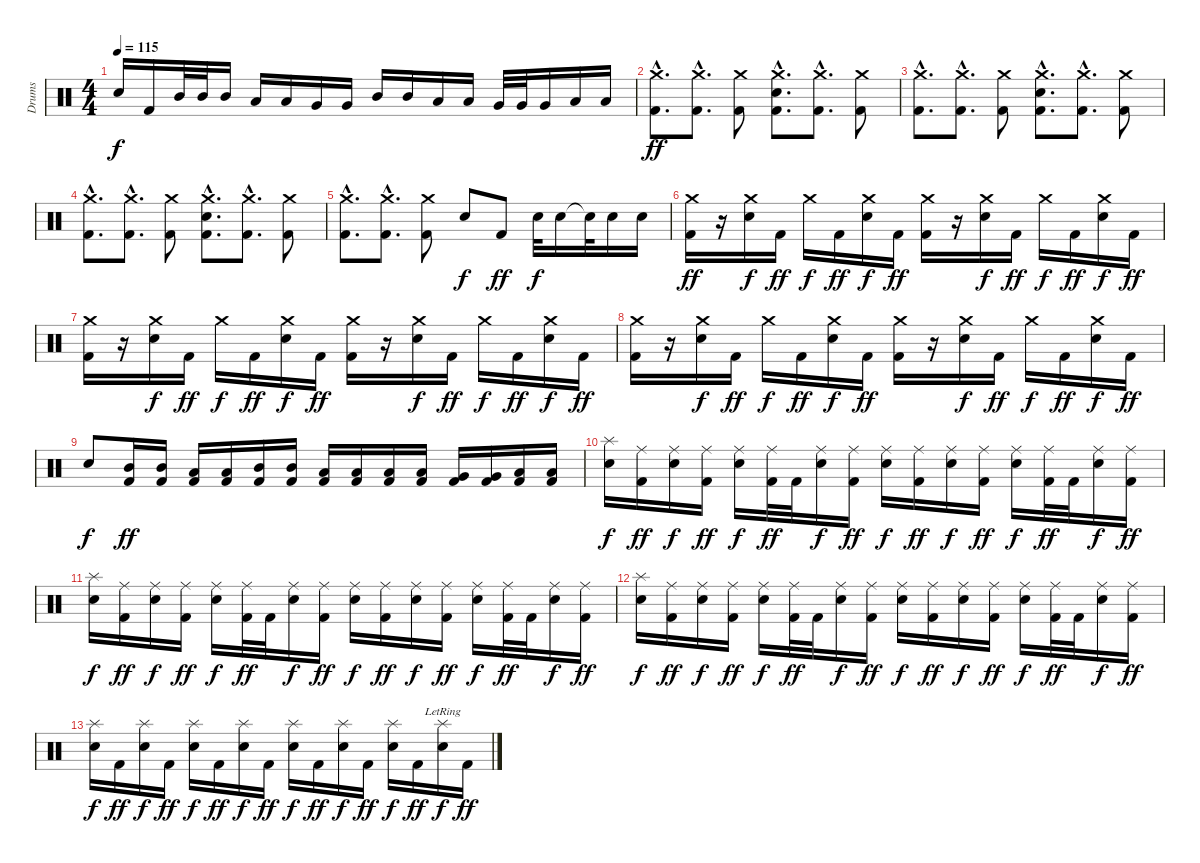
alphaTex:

\track ("Drums" "Drums") {instrument percussion}
\staff {score}
\articulation defaults
\ts (4 4)
\tempo 115
\clef neutral
\ks c "Electric Snare (hit)".16{dy f} "Kick (hit) 2".16 "Mid Tom (hit)".32 "Mid Tom (hit)".32 "Mid Tom (hit)".16 "Low Tom (hit)".16 "Low Tom (hit)".16 "Very Low Tom (hit)".16 "Very Low Tom (hit)".16 "Mid Tom (hit)".16 "Mid Tom (hit)".16 "Low Tom (hit)".16 "Low Tom (hit)".16 "Very Low Tom (hit)".32 "Very Low Tom (hit)".32 "Very Low Tom (hit)".16 "Low Floor Tom (hit)".16 "Low Floor Tom (hit)".16
|
("Crash medium (hit)"{hac} "Kick (hit) 2"{hac}).8{d dy ff} ("Crash medium (hit)"{hac} "Kick (hit) 2"{hac}).8{d} ("Crash medium (hit)" "Kick (hit) 2").8 ("Crash medium (hit)"{hac} "Electric Snare (hit)"{hac} "Kick (hit) 2"{hac}).8{d} ("Crash medium (hit)"{hac} "Kick (hit) 2"{hac}).8{d} ("Crash medium (hit)" "Kick (hit) 2").8 |
("Crash medium (hit)"{hac} "Kick (hit) 2"{hac}).8{d} ("Crash medium (hit)"{hac} "Kick (hit) 2"{hac}).8{d} ("Crash medium (hit)" "Kick (hit) 2").8 ("Crash medium (hit)"{hac} "Electric Snare (hit)"{hac} "Kick (hit) 2"{hac}).8{d} ("Crash medium (hit)"{hac} "Kick (hit) 2"{hac}).8{d} ("Crash medium (hit)" "Kick (hit) 2").8 |
("Crash medium (hit)"{hac} "Kick (hit) 2"{hac}).8{d} ("Crash medium (hit)"{hac} "Kick (hit) 2"{hac}).8{d} ("Crash medium (hit)" "Kick (hit) 2").8 ("Crash medium (hit)"{hac} "Electric Snare (hit)"{hac} "Kick (hit) 2"{hac}).8{d} ("Crash medium (hit)"{hac} "Kick (hit) 2"{hac}).8{d} ("Crash medium (hit)" "Kick (hit) 2").8 |
("Crash medium (hit)"{hac} "Kick (hit) 2"{hac}).8{d} ("Crash medium (hit)"{hac} "Kick (hit) 2"{hac}).8{d} ("Crash medium (hit)" "Kick (hit) 2").8 "Electric Snare (hit)".8{dy f} "Kick (hit) 2".8{dy ff} "Electric Snare (hit)".32{dy f} "Electric Snare (hit)".16 "Electric Snare (hit)"{t}.32 "Electric Snare (hit)".16 "Electric Snare (hit)".16 |
("Crash medium (hit)" "Kick (hit) 2").16{dy ff} r.16 ("Crash medium (hit)" "Electric Snare (hit)").16{dy f} "Kick (hit) 2".16{dy ff} "Crash medium (hit)".16{dy f} "Kick (hit) 2".16{dy ff} ("Crash medium (hit)" "Electric Snare (hit)").16{dy f} "Kick (hit) 2".16{dy ff} ("Crash medium (hit)" "Kick (hit) 2").16 r.16 ("Crash medium (hit)" "Electric Snare (hit)").16{dy f} "Kick (hit) 2".16{dy ff} "Crash medium (hit)".16{dy f} "Kick (hit) 2".16{dy ff} ("Crash medium (hit)" "Electric Snare (hit)").16{dy f} "Kick (hit) 2".16{dy ff} |
("Crash medium (hit)" "Kick (hit) 2").16 r.16 ("Crash medium (hit)" "Electric Snare (hit)").16{dy f} "Kick (hit) 2".16{dy ff} "Crash medium (hit)".16{dy f} "Kick (hit) 2".16{dy ff} ("Crash medium (hit)" "Electric Snare (hit)").16{dy f} "Kick (hit) 2".16{dy ff} ("Crash medium (hit)" "Kick (hit) 2").16 r.16 ("Crash medium (hit)" "Electric Snare (hit)").16{dy f} "Kick (hit) 2".16{dy ff} "Crash medium (hit)".16{dy f} "Kick (hit) 2".16{dy ff} ("Crash medium (hit)" "Electric Snare (hit)").16{dy f} "Kick (hit) 2".16{dy ff} |
("Crash medium (hit)" "Kick (hit) 2").16 r.16 ("Crash medium (hit)" "Electric Snare (hit)").16{dy f} "Kick (hit) 2".16{dy ff} "Crash medium (hit)".16{dy f} "Kick (hit) 2".16{dy ff} ("Crash medium (hit)" "Electric Snare (hit)").16{dy f} "Kick (hit) 2".16{dy ff} ("Crash medium (hit)" "Kick (hit) 2").16 r.16 ("Crash medium (hit)" "Electric Snare (hit)").16{dy f} "Kick (hit) 2".16{dy ff} "Crash medium (hit)".16{dy f} "Kick (hit) 2".16{dy ff} ("Crash medium (hit)" "Electric Snare (hit)").16{dy f} "Kick (hit) 2".16{dy ff} |
"Electric Snare (hit)".8{dy f} ("Mid Tom (hit)" "Kick (hit) 2").16{dy ff} ("Mid Tom (hit)" "Kick (hit) 2").16 ("Low Tom (hit)" "Kick (hit) 2").16 ("Low Tom (hit)" "Kick (hit) 2").16 ("Mid Tom (hit)" "Kick (hit) 2").16 ("Mid Tom (hit)" "Kick (hit) 2").16 ("Low Tom (hit)" "Kick (hit) 2").16 ("Low Tom (hit)" "Kick (hit) 2").16 ("Low Tom (hit)" "Kick (hit) 2").16 ("Low Tom (hit)" "Kick (hit) 2").16 ("Very Low Tom (hit)" "Kick (hit) 2").16 ("Very Low Tom (hit)" "Kick (hit) 2").16 ("Low Floor Tom (hit)" "Kick (hit) 2").16 ("Low Floor Tom (hit)" "Kick (hit) 2").16 |
("Splash (hit)" "Electric Snare (hit)").16{dy f} ("Ride (middle)" "Kick (hit) 2").16{dy ff} ("Ride (middle)" "Electric Snare (hit)").16{dy f} ("Ride (middle)" "Kick (hit) 2").16{dy ff} ("Ride (middle)" "Electric Snare (hit)").16{dy f} ("Ride (middle)" "Kick (hit) 2").32{dy ff} "Kick (hit) 2".32 ("Ride (middle)" "Electric Snare (hit)").16{dy f} ("Ride (middle)" "Kick (hit) 2").16{dy ff} ("Ride (middle)" "Electric Snare (hit)").16{dy f} ("Ride (middle)" "Kick (hit) 2").16{dy ff} ("Ride (middle)" "Electric Snare (hit)").16{dy f} ("Ride (middle)" "Kick (hit) 2").16{dy ff} ("Ride (middle)" "Electric Snare (hit)").16{dy f} ("Ride (middle)" "Kick (hit) 2").32{dy ff} "Kick (hit) 2".32 ("Ride (middle)" "Electric Snare (hit)").16{dy f} ("Ride (middle)" "Kick (hit) 2").16{dy ff} |
("Splash (hit)" "Electric Snare (hit)").16{dy f} ("Ride (middle)" "Kick (hit) 2").16{dy ff} ("Ride (middle)" "Electric Snare (hit)").16{dy f} ("Ride (middle)" "Kick (hit) 2").16{dy ff} ("Ride (middle)" "Electric Snare (hit)").16{dy f} ("Ride (middle)" "Kick (hit) 2").32{dy ff} "Kick (hit) 2".32 ("Ride (middle)" "Electric Snare (hit)").16{dy f} ("Ride (middle)" "Kick (hit) 2").16{dy ff} ("Ride (middle)" "Electric Snare (hit)").16{dy f} ("Ride (middle)" "Kick (hit) 2").16{dy ff} ("Ride (middle)" "Electric Snare (hit)").16{dy f} ("Ride (middle)" "Kick (hit) 2").16{dy ff} ("Ride (middle)" "Electric Snare (hit)").16{dy f} ("Ride (middle)" "Kick (hit) 2").32{dy ff} "Kick (hit) 2".32 ("Ride (middle)" "Electric Snare (hit)").16{dy f} ("Ride (middle)" "Kick (hit) 2").16{dy ff} |
("Splash (hit)" "Electric Snare (hit)").16{dy f} ("Ride (middle)" "Kick (hit) 2").16{dy ff} ("Ride (middle)" "Electric Snare (hit)").16{dy f} ("Ride (middle)" "Kick (hit) 2").16{dy ff} ("Ride (middle)" "Electric Snare (hit)").16{dy f} ("Ride (middle)" "Kick (hit) 2").32{dy ff} "Kick (hit) 2".32 ("Ride (middle)" "Electric Snare (hit)").16{dy f} ("Ride (middle)" "Kick (hit) 2").16{dy ff} ("Ride (middle)" "Electric Snare (hit)").16{dy f} ("Ride (middle)" "Kick (hit) 2").16{dy ff} ("Ride (middle)" "Electric Snare (hit)").16{dy f} ("Ride (middle)" "Kick (hit) 2").16{dy ff} ("Ride (middle)" "Electric Snare (hit)").16{dy f} ("Ride (middle)" "Kick (hit) 2").32{dy ff} "Kick (hit) 2".32 ("Ride (middle)" "Electric Snare (hit)").16{dy f} ("Ride (middle)" "Kick (hit) 2").16{dy ff} |
("Splash (hit)" "Electric Snare (hit)").16{dy f} "Kick (hit) 2".16{dy ff} ("Splash (hit)" "Electric Snare (hit)").16{dy f} "Kick (hit) 2".16{dy ff} ("Splash (hit)" "Electric Snare (hit)").16{dy f} "Kick (hit) 2".16{dy ff} ("Splash (hit)" "Electric Snare (hit)").16{dy f} "Kick (hit) 2".16{dy ff} ("Splash (hit)" "Electric Snare (hit)").16{dy f} "Kick (hit) 2".16{dy ff} ("Splash (hit)" "Electric Snare (hit)").16{dy f} "Kick (hit) 2".16{dy ff} ("Splash (hit)" "Electric Snare (hit)").16{dy f} "Kick (hit) 2".16{dy ff} ("Splash (hit)"{lr} "Electric Snare (hit)").16{dy f} "Kick (hit) 2".16{dy ff}
